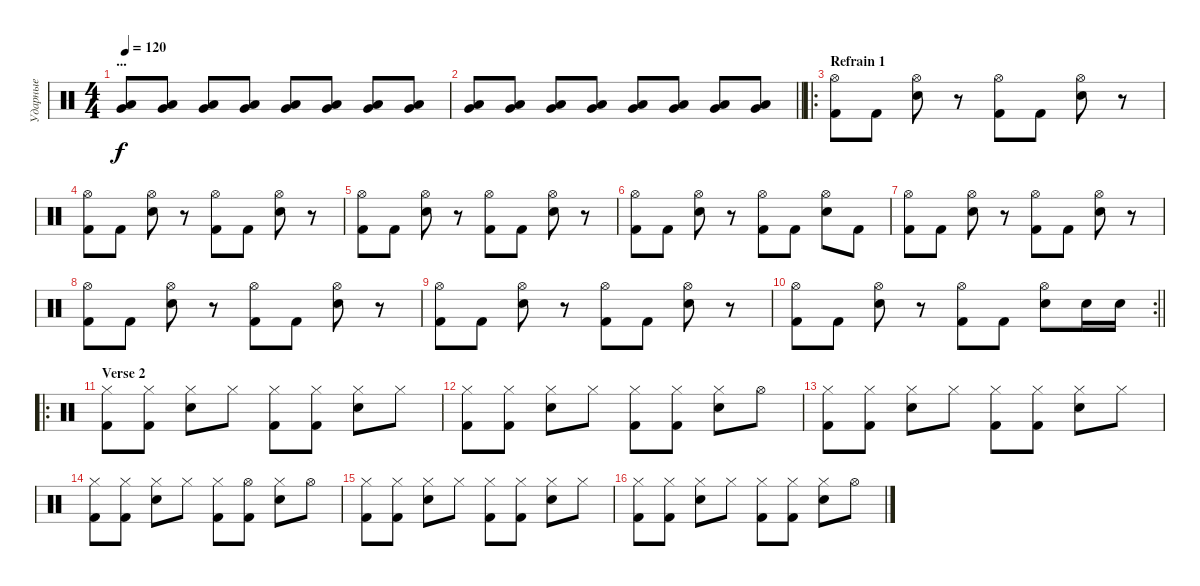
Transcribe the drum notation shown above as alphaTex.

\track ("Ударные" "Ударные") {instrument percussion}
\staff {score}
\articulation defaults
\ts (4 4)
\section ("" "...")
\tempo 120
\clef neutral
\ks c
("Low Tom (hit)" "Very Low Tom (hit)").8{dy f} ("Low Tom (hit)" "Very Low Tom (hit)").8 ("Low Tom (hit)" "Very Low Tom (hit)").8 ("Low Tom (hit)" "Very Low Tom (hit)").8 ("Low Tom (hit)" "Very Low Tom (hit)").8 ("Low Tom (hit)" "Very Low Tom (hit)").8 ("Low Tom (hit)" "Very Low Tom (hit)").8 ("Low Tom (hit)" "Very Low Tom (hit)").8 |
\barLineRight lightlight
("Low Tom (hit)" "Very Low Tom (hit)").8 ("Low Tom (hit)" "Very Low Tom (hit)").8 ("Low Tom (hit)" "Very Low Tom (hit)").8 ("Low Tom (hit)" "Very Low Tom (hit)").8 ("Low Tom (hit)" "Very Low Tom (hit)").8 ("Low Tom (hit)" "Very Low Tom (hit)").8 ("Low Tom (hit)" "Very Low Tom (hit)").8 ("Low Tom (hit)" "Very Low Tom (hit)").8 |
\ro
\section ("" "Refrain 1")
("Hi-Hat (open)" "Kick (hit) 2").8 "Kick (hit) 2".8 ("Hi-Hat (open)" "Electric Snare (hit)").8 r.8 ("Hi-Hat (open)" "Kick (hit) 2").8 "Kick (hit) 2".8 ("Hi-Hat (open)" "Electric Snare (hit)").8 r.8 |
("Hi-Hat (open)" "Kick (hit) 2").8 "Kick (hit) 2".8 ("Hi-Hat (open)" "Electric Snare (hit)").8 r.8 ("Hi-Hat (open)" "Kick (hit) 2").8 "Kick (hit) 2".8 ("Hi-Hat (open)" "Electric Snare (hit)").8 r.8 |
("Hi-Hat (open)" "Kick (hit) 2").8 "Kick (hit) 2".8 ("Hi-Hat (open)" "Electric Snare (hit)").8 r.8 ("Hi-Hat (open)" "Kick (hit) 2").8 "Kick (hit) 2".8 ("Hi-Hat (open)" "Electric Snare (hit)").8 r.8 |
("Hi-Hat (open)" "Kick (hit) 2").8 "Kick (hit) 2".8 ("Hi-Hat (open)" "Electric Snare (hit)").8 r.8 ("Hi-Hat (open)" "Kick (hit) 2").8 "Kick (hit) 2".8 ("Hi-Hat (open)" "Electric Snare (hit)").8 "Kick (hit) 2".8 |
("Hi-Hat (open)" "Kick (hit) 2").8 "Kick (hit) 2".8 ("Hi-Hat (open)" "Electric Snare (hit)").8 r.8 ("Hi-Hat (open)" "Kick (hit) 2").8 "Kick (hit) 2".8 ("Hi-Hat (open)" "Electric Snare (hit)").8 r.8 |
("Hi-Hat (open)" "Kick (hit) 2").8 "Kick (hit) 2".8 ("Hi-Hat (open)" "Electric Snare (hit)").8 r.8 ("Hi-Hat (open)" "Kick (hit) 2").8 "Kick (hit) 2".8 ("Hi-Hat (open)" "Electric Snare (hit)").8 r.8 |
("Hi-Hat (open)" "Kick (hit) 2").8 "Kick (hit) 2".8 ("Hi-Hat (open)" "Electric Snare (hit)").8 r.8 ("Hi-Hat (open)" "Kick (hit) 2").8 "Kick (hit) 2".8 ("Hi-Hat (open)" "Electric Snare (hit)").8 r.8 |
\rc 2
\barLineRight lightlight
("Hi-Hat (open)" "Kick (hit) 2").8 "Kick (hit) 2".8 ("Hi-Hat (open)" "Electric Snare (hit)").8 r.8 ("Hi-Hat (open)" "Kick (hit) 2").8 "Kick (hit) 2".8 ("Hi-Hat (open)" "Electric Snare (hit)").8 "Electric Snare (hit)".16 "Electric Snare (hit)".16 |
\ro
\section ("" "Verse 2")
("Hi-Hat (closed)" "Kick (hit) 2").8 ("Hi-Hat (closed)" "Kick (hit) 2").8 ("Hi-Hat (closed)" "Electric Snare (hit)").8 "Hi-Hat (closed)".8 ("Hi-Hat (closed)" "Kick (hit) 2").8 ("Hi-Hat (closed)" "Kick (hit) 2").8 ("Hi-Hat (closed)" "Electric Snare (hit)").8 "Hi-Hat (closed)".8 |
("Hi-Hat (closed)" "Kick (hit) 2").8 ("Hi-Hat (closed)" "Kick (hit) 2").8 ("Hi-Hat (closed)" "Electric Snare (hit)").8 "Hi-Hat (closed)".8 ("Hi-Hat (closed)" "Kick (hit) 2").8 ("Hi-Hat (closed)" "Kick (hit) 2").8 ("Hi-Hat (closed)" "Electric Snare (hit)").8 "Hi-Hat (open)".8 |
("Hi-Hat (closed)" "Kick (hit) 2").8 ("Hi-Hat (closed)" "Kick (hit) 2").8 ("Hi-Hat (closed)" "Electric Snare (hit)").8 "Hi-Hat (closed)".8 ("Hi-Hat (closed)" "Kick (hit) 2").8 ("Hi-Hat (closed)" "Kick (hit) 2").8 ("Hi-Hat (closed)" "Electric Snare (hit)").8 "Hi-Hat (closed)".8 |
("Hi-Hat (closed)" "Kick (hit) 2").8 ("Hi-Hat (closed)" "Kick (hit) 2").8 ("Hi-Hat (closed)" "Electric Snare (hit)").8 "Hi-Hat (closed)".8 ("Hi-Hat (closed)" "Kick (hit) 2").8 ("Hi-Hat (open)" "Kick (hit) 2").8 ("Hi-Hat (closed)" "Electric Snare (hit)").8 "Hi-Hat (open)".8 |
("Hi-Hat (closed)" "Kick (hit) 2").8 ("Hi-Hat (closed)" "Kick (hit) 2").8 ("Hi-Hat (closed)" "Electric Snare (hit)").8 "Hi-Hat (closed)".8 ("Hi-Hat (closed)" "Kick (hit) 2").8 ("Hi-Hat (closed)" "Kick (hit) 2").8 ("Hi-Hat (closed)" "Electric Snare (hit)").8 "Hi-Hat (closed)".8 |
("Hi-Hat (closed)" "Kick (hit) 2").8 ("Hi-Hat (closed)" "Kick (hit) 2").8 ("Hi-Hat (closed)" "Electric Snare (hit)").8 "Hi-Hat (closed)".8 ("Hi-Hat (closed)" "Kick (hit) 2").8 ("Hi-Hat (closed)" "Kick (hit) 2").8 ("Hi-Hat (closed)" "Electric Snare (hit)").8 "Hi-Hat (open)".8
